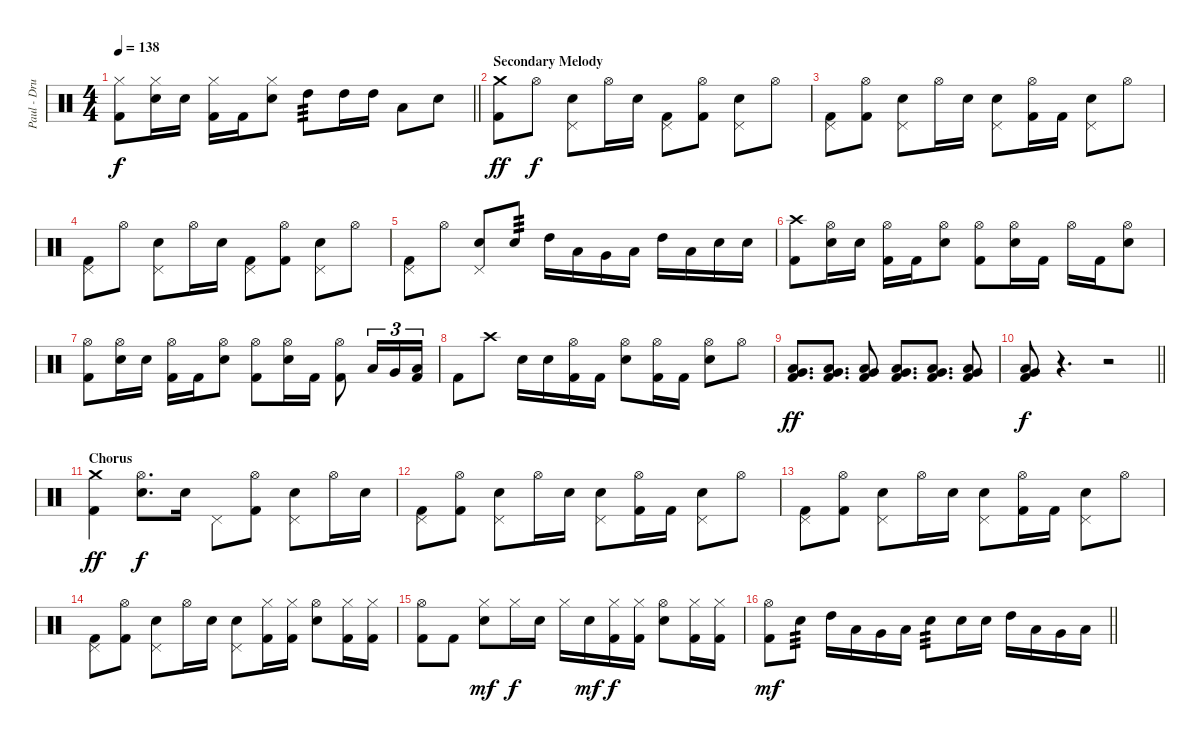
\track ("Paul - Drums" "Paul - Dru") {instrument percussion}
\staff {score}
\articulation defaults
\ts (4 4)
\tempo 138
\clef neutral
\barLineRight lightlight
\ks c
("Hi-Hat (closed)" "Kick (hit) 2").8{dy f} ("Hi-Hat (closed)" "Electric Snare (hit)").16 "Electric Snare (hit)".16 ("Hi-Hat (closed)" "Kick (hit) 2").16 "Kick (hit) 2".16 ("Hi-Hat (closed)" "Electric Snare (hit)").8 "High Tom (hit)".8{tp 3} "High Tom (hit)".16 "High Tom (hit)".16 "Low Tom (hit)".8 "Electric Snare (hit)".8 |
\section ("" "Secondary Melody")
("Crash medium (hit)" "Kick (hit) 2").8{dy ff} "Hi-Hat (open)".8{dy f} ("Pedal Hi-Hat (hit)" "Electric Snare (hit)").8 "Hi-Hat (open)".16 "Electric Snare (hit)".16 ("Pedal Hi-Hat (hit)" "Kick (hit) 2").8 ("Hi-Hat (open)" "Kick (hit) 2").8 ("Pedal Hi-Hat (hit)" "Electric Snare (hit)").8 "Hi-Hat (open)".8 |
("Pedal Hi-Hat (hit)" "Kick (hit) 2").8 ("Hi-Hat (open)" "Kick (hit) 2").8 ("Pedal Hi-Hat (hit)" "Electric Snare (hit)").8 "Hi-Hat (open)".16 "Electric Snare (hit)".16 ("Pedal Hi-Hat (hit)" "Electric Snare (hit)").8 ("Hi-Hat (open)" "Kick (hit) 2").16 "Kick (hit) 2".16 ("Pedal Hi-Hat (hit)" "Electric Snare (hit)").8 "Hi-Hat (open)".8 |
("Pedal Hi-Hat (hit)" "Kick (hit) 2").8 "Hi-Hat (open)".8 ("Pedal Hi-Hat (hit)" "Electric Snare (hit)").8 "Hi-Hat (open)".16 "Electric Snare (hit)".16 ("Pedal Hi-Hat (hit)" "Kick (hit) 2").8 ("Hi-Hat (open)" "Kick (hit) 2").8 ("Pedal Hi-Hat (hit)" "Electric Snare (hit)").8 "Hi-Hat (open)".8 |
("Pedal Hi-Hat (hit)" "Kick (hit) 2").8 "Hi-Hat (open)".8 ("Pedal Hi-Hat (hit)" "Electric Snare (hit)").8 "Electric Snare (hit)".8{tp 3} "High Tom (hit)".16 "Low Tom (hit)".16 "Very Low Tom (hit)".16 "Low Floor Tom (hit)".16 "High Tom (hit)".16 "Low Tom (hit)".16 "Electric Snare (hit)".16 "Electric Snare (hit)".16 |
("Crash high (hit)" "Kick (hit) 2").8 ("Hi-Hat (open)" "Electric Snare (hit)").16 "Electric Snare (hit)".16 ("Hi-Hat (open)" "Kick (hit) 2").16 "Kick (hit) 2".16 ("Hi-Hat (open)" "Electric Snare (hit)").8 ("Hi-Hat (open)" "Kick (hit) 2").8 ("Hi-Hat (open)" "Electric Snare (hit)").16 "Kick (hit) 2".16 "Hi-Hat (open)".16 "Kick (hit) 2".16 ("Hi-Hat (open)" "Electric Snare (hit)").8 |
("Hi-Hat (open)" "Kick (hit) 2").8 ("Hi-Hat (open)" "Electric Snare (hit)").16 "Electric Snare (hit)".16 ("Hi-Hat (open)" "Kick (hit) 2").16 "Kick (hit) 2".16 ("Hi-Hat (open)" "Electric Snare (hit)").8 ("Hi-Hat (open)" "Kick (hit) 2").8 ("Hi-Hat (open)" "Electric Snare (hit)").16 "Kick (hit) 2".16 ("Hi-Hat (open)" "Kick (hit) 2").8 "Low Tom (hit)".16{tu (3 2)} "Very Low Tom (hit)".16{tu (3 2)} ("Low Floor Tom (hit)" "Kick (hit) 2").16{tu (3 2)} |
"Kick (hit) 2".8 "Crash high (hit)".8 "Electric Snare (hit)".16 "Electric Snare (hit)".16 ("Hi-Hat (open)" "Kick (hit) 2").16 "Kick (hit) 2".16 ("Hi-Hat (open)" "Electric Snare (hit)").8 ("Hi-Hat (open)" "Kick (hit) 2").16 "Kick (hit) 2".16 ("Hi-Hat (open)" "Electric Snare (hit)").8 "Hi-Hat (open)".8 |
("Very Low Tom (hit)" "Low Floor Tom (hit)" "Kick (hit) 2").8{d dy ff} ("Very Low Tom (hit)" "Low Floor Tom (hit)" "Kick (hit) 2").8{d} ("Very Low Tom (hit)" "Low Floor Tom (hit)" "Kick (hit) 2").8 ("Very Low Tom (hit)" "Low Floor Tom (hit)" "Kick (hit) 2").8{d} ("Very Low Tom (hit)" "Low Floor Tom (hit)" "Kick (hit) 2").8{d} ("Very Low Tom (hit)" "Low Floor Tom (hit)" "Kick (hit) 2").8 |
\barLineRight lightlight
("Very Low Tom (hit)" "Low Floor Tom (hit)" "Kick (hit) 2").8{dy f} r.4{d} r.2 |
\section ("" "Chorus")
("Crash medium (hit)" "Kick (hit) 2").4{dy ff} ("Hi-Hat (open)" "Electric Snare (hit)").8{d dy f} "Electric Snare (hit)".16 "Pedal Hi-Hat (hit)".8 ("Hi-Hat (open)" "Kick (hit) 2").8 ("Pedal Hi-Hat (hit)" "Electric Snare (hit)").8 "Hi-Hat (open)".16 "Electric Snare (hit)".16 |
("Pedal Hi-Hat (hit)" "Kick (hit) 2").8 ("Hi-Hat (open)" "Kick (hit) 2").8 ("Pedal Hi-Hat (hit)" "Electric Snare (hit)").8 "Hi-Hat (open)".16 "Electric Snare (hit)".16 ("Pedal Hi-Hat (hit)" "Electric Snare (hit)").8 ("Hi-Hat (open)" "Kick (hit) 2").16 "Kick (hit) 2".16 ("Pedal Hi-Hat (hit)" "Electric Snare (hit)").8 "Hi-Hat (open)".8 |
("Pedal Hi-Hat (hit)" "Kick (hit) 2").8 ("Hi-Hat (open)" "Kick (hit) 2").8 ("Pedal Hi-Hat (hit)" "Electric Snare (hit)").8 "Hi-Hat (open)".16 "Electric Snare (hit)".16 ("Pedal Hi-Hat (hit)" "Electric Snare (hit)").8 ("Hi-Hat (open)" "Kick (hit) 2").16 "Kick (hit) 2".16 ("Pedal Hi-Hat (hit)" "Electric Snare (hit)").8 "Hi-Hat (open)".8 |
("Pedal Hi-Hat (hit)" "Kick (hit) 2").8 ("Hi-Hat (open)" "Kick (hit) 2").8 ("Pedal Hi-Hat (hit)" "Electric Snare (hit)").8 "Hi-Hat (open)".16 "Electric Snare (hit)".16 ("Pedal Hi-Hat (hit)" "Electric Snare (hit)").8 ("Hi-Hat (closed)" "Kick (hit) 2").16 ("Hi-Hat (closed)" "Kick (hit) 2").16 ("Hi-Hat (open)" "Electric Snare (hit)").8 ("Hi-Hat (closed)" "Kick (hit) 2").16 ("Hi-Hat (closed)" "Kick (hit) 2").16 |
("Hi-Hat (open)" "Kick (hit) 2").8 "Kick (hit) 2".8 ("Hi-Hat (closed)" "Electric Snare (hit)").8{dy mf} "Hi-Hat (closed)".16{dy f} "Electric Snare (hit)".16 "Hi-Hat (closed)".16 "Electric Snare (hit)".16{dy mf} ("Hi-Hat (closed)" "Kick (hit) 2").16{dy f} ("Hi-Hat (closed)" "Kick (hit) 2").16 ("Hi-Hat (open)" "Electric Snare (hit)").8 ("Hi-Hat (closed)" "Kick (hit) 2").16 ("Hi-Hat (closed)" "Kick (hit) 2").16 |
\barLineRight lightlight
("Hi-Hat (open)" "Kick (hit) 2").8{dy mf} "Electric Snare (hit)".8{tp 3} "High Tom (hit)".16 "Low Tom (hit)".16 "Very Low Tom (hit)".16 "Low Floor Tom (hit)".16 "Electric Snare (hit)".8{tp 3} "Electric Snare (hit)".16 "Electric Snare (hit)".16 "High Tom (hit)".16 "Low Tom (hit)".16 "Very Low Tom (hit)".16 "Low Floor Tom (hit)".16
